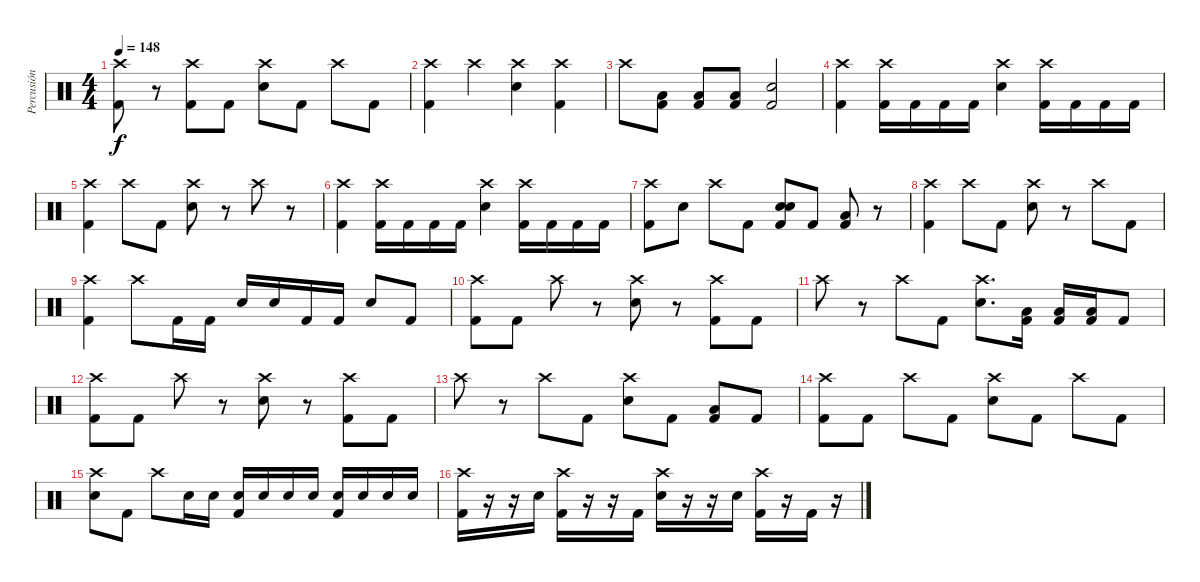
\track ("Percusión" "Percusión") {instrument percussion}
\staff {score}
\articulation defaults
\ts (4 4)
\tempo 148
\clef neutral
\ks c
("Crash high (hit)" "Kick (hit) 2").8{dy f} r.8 ("Crash high (hit)" "Kick (hit) 2").8 "Kick (hit) 2".8 ("Crash high (hit)" "Electric Snare (hit)").8 "Kick (hit) 2".8 "Crash high (hit)".8 "Kick (hit) 2".8 |
("Crash high (hit)" "Kick (hit) 2").4 "Crash high (hit)".4 ("Crash high (hit)" "Electric Snare (hit)").4 ("Crash high (hit)" "Kick (hit) 2").4 |
"Crash high (hit)".8 ("Low Tom (hit)" "Kick (hit) 2").8 ("Low Tom (hit)" "Kick (hit) 2").8 ("Low Tom (hit)" "Kick (hit) 2").8 ("Electric Snare (hit)" "Kick (hit) 2").2 |
("Crash high (hit)" "Kick (hit) 2").4 ("Crash high (hit)" "Kick (hit) 2").16 "Kick (hit) 2".16 "Kick (hit) 2".16 "Kick (hit) 2".16 ("Crash high (hit)" "Electric Snare (hit)").4 ("Crash high (hit)" "Kick (hit) 2").16 "Kick (hit) 2".16 "Kick (hit) 2".16 "Kick (hit) 2".16 |
("Crash high (hit)" "Kick (hit) 2").4 "Crash high (hit)".8 "Kick (hit) 2".8 ("Crash high (hit)" "Electric Snare (hit)").8 r.8 "Crash high (hit)".8 r.8 |
("Crash high (hit)" "Kick (hit) 2").4 ("Crash high (hit)" "Kick (hit) 2").16 "Kick (hit) 2".16 "Kick (hit) 2".16 "Kick (hit) 2".16 ("Crash high (hit)" "Electric Snare (hit)").4 ("Crash high (hit)" "Kick (hit) 2").16 "Kick (hit) 2".16 "Kick (hit) 2".16 "Kick (hit) 2".16 |
("Crash high (hit)" "Kick (hit) 2").8 "Electric Snare (hit)".8 "Crash high (hit)".8 "Kick (hit) 2".8 ("Electric Snare (hit)" "Electric Snare (hit)" "Kick (hit) 2").8{bu 60} "Kick (hit) 2".8 ("Low Tom (hit)" "Kick (hit) 2").8 r.8 |
("Crash high (hit)" "Kick (hit) 2").4 "Crash high (hit)".8 "Kick (hit) 2".8 ("Crash high (hit)" "Electric Snare (hit)").8 r.8 "Crash high (hit)".8 "Kick (hit) 2".8 |
("Crash high (hit)" "Kick (hit) 2").4 "Crash high (hit)".8 "Kick (hit) 2".16 "Kick (hit) 2".16 "Electric Snare (hit)".16 "Electric Snare (hit)".16 "Kick (hit) 2".16 "Kick (hit) 2".16 "Electric Snare (hit)".8 "Kick (hit) 2".8 |
("Crash high (hit)" "Kick (hit) 2").8 "Kick (hit) 2".8 "Crash high (hit)".8 r.8 ("Crash high (hit)" "Electric Snare (hit)").8 r.8 ("Crash high (hit)" "Kick (hit) 2").8 "Kick (hit) 2".8 |
"Crash high (hit)".8 r.8 "Crash high (hit)".8 "Kick (hit) 2".8 ("Crash high (hit)" "Electric Snare (hit)").8{d} ("Low Tom (hit)" "Kick (hit) 2").16 ("Low Tom (hit)" "Kick (hit) 2").16 ("Low Tom (hit)" "Kick (hit) 2").16 "Kick (hit) 2".8 |
("Crash high (hit)" "Kick (hit) 2").8 "Kick (hit) 2".8 "Crash high (hit)".8 r.8 ("Crash high (hit)" "Electric Snare (hit)").8 r.8 ("Crash high (hit)" "Kick (hit) 2").8 "Kick (hit) 2".8 |
"Crash high (hit)".8 r.8 "Crash high (hit)".8 "Kick (hit) 2".8 ("Crash high (hit)" "Electric Snare (hit)").8 "Kick (hit) 2".8 ("Low Tom (hit)" "Kick (hit) 2").8 "Kick (hit) 2".8 |
("Crash high (hit)" "Kick (hit) 2").8 "Kick (hit) 2".8 "Crash high (hit)".8 "Kick (hit) 2".8 ("Crash high (hit)" "Electric Snare (hit)").8 "Kick (hit) 2".8 "Crash high (hit)".8 "Kick (hit) 2".8 |
("Crash high (hit)" "Electric Snare (hit)").8 "Kick (hit) 2".8 "Crash high (hit)".8 "Electric Snare (hit)".16 "Electric Snare (hit)".16 ("Electric Snare (hit)" "Kick (hit) 2").16 "Electric Snare (hit)".16 "Electric Snare (hit)".16 "Electric Snare (hit)".16 ("Electric Snare (hit)" "Kick (hit) 2").16 "Electric Snare (hit)".16 "Electric Snare (hit)".16 "Electric Snare (hit)".16 |
("Crash high (hit)" "Kick (hit) 2").16 r.16 r.16 "Electric Snare (hit)".16 ("Crash high (hit)" "Kick (hit) 2").16 r.16 r.16 "Kick (hit) 2".16 ("Crash high (hit)" "Electric Snare (hit)").16 r.16 r.16 "Electric Snare (hit)".16 ("Crash high (hit)" "Kick (hit) 2").16 r.16 "Kick (hit) 2".16 r.16
